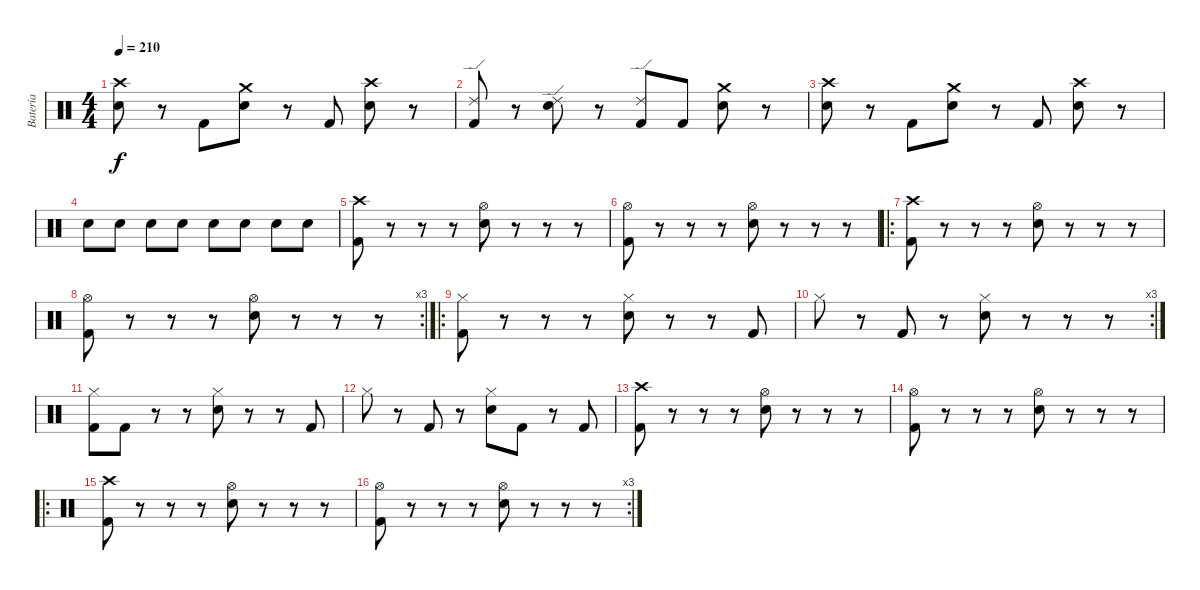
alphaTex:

\track ("Bateria" "Bateria") {instrument percussion}
\staff {score}
\articulation defaults
\ts (4 4)
\tempo 210
\clef neutral
\ks c
("Crash high (hit)" "Snare (hit) 2").8{dy f} r.8 "Kick (hit) 2".8 ("Crash medium (hit)" "Snare (hit) 2").8 r.8 "Kick (hit) 2".8 ("Crash high (hit)" "Snare (hit) 2").8 r.8 |
("Ride (edge) 2" "Kick (hit) 2").8 r.8 ("Ride (edge) 2" "Snare (hit) 2").8 r.8 ("Ride (edge) 2" "Kick (hit) 2").8 "Kick (hit) 2".8 ("Crash medium (hit)" "Snare (hit) 2").8 r.8 |
("Crash high (hit)" "Snare (hit) 2").8 r.8 "Kick (hit) 2".8 ("Crash medium (hit)" "Snare (hit) 2").8 r.8 "Kick (hit) 2".8 ("Crash high (hit)" "Snare (hit) 2").8 r.8 |
"Snare (hit) 2".8 "Snare (hit) 2".8 "Snare (hit) 2".8 "Snare (hit) 2".8 "Snare (hit) 2".8 "Snare (hit) 2".8 "Snare (hit) 2".8 "Snare (hit) 2".8 |
("Crash high (hit)" "Kick (hit) 2").8 r.8 r.8 r.8 ("Hi-Hat (open)" "Snare (hit) 2").8 r.8 r.8 r.8 |
("Hi-Hat (open)" "Kick (hit) 2").8 r.8 r.8 r.8 ("Hi-Hat (open)" "Snare (hit) 2").8 r.8 r.8 r.8 |
\ro
("Crash high (hit)" "Kick (hit) 2").8 r.8 r.8 r.8 ("Hi-Hat (open)" "Snare (hit) 2").8 r.8 r.8 r.8 |
\rc 3
("Hi-Hat (open)" "Kick (hit) 2").8 r.8 r.8 r.8 ("Hi-Hat (open)" "Snare (hit) 2").8 r.8 r.8 r.8 |
\ro
("Hi-Hat (closed)" "Kick (hit) 2").8 r.8 r.8 r.8 ("Hi-Hat (closed)" "Snare (hit) 2").8 r.8 r.8 "Kick (hit) 2".8 |
\rc 3 "Hi-Hat (closed)".8
r.8 "Kick (hit) 2".8 r.8 ("Hi-Hat (closed)" "Snare (hit) 2").8 r.8 r.8 r.8 |
("Hi-Hat (closed)" "Kick (hit) 2").8 "Kick (hit) 2".8 r.8 r.8 ("Hi-Hat (closed)" "Snare (hit) 2").8 r.8 r.8 "Kick (hit) 2".8 |
"Hi-Hat (closed)".8 r.8 "Kick (hit) 2".8 r.8 ("Hi-Hat (closed)" "Snare (hit) 2").8 "Kick (hit) 2".8 r.8 "Kick (hit) 2".8 |
("Crash high (hit)" "Kick (hit) 2").8 r.8 r.8 r.8 ("Hi-Hat (open)" "Snare (hit) 2").8 r.8 r.8 r.8 |
("Hi-Hat (open)" "Kick (hit) 2").8 r.8 r.8 r.8 ("Hi-Hat (open)" "Snare (hit) 2").8 r.8 r.8 r.8 |
\ro
("Crash high (hit)" "Kick (hit) 2").8 r.8 r.8 r.8 ("Hi-Hat (open)" "Snare (hit) 2").8 r.8 r.8 r.8 |
\rc 3
("Hi-Hat (open)" "Kick (hit) 2").8 r.8 r.8 r.8 ("Hi-Hat (open)" "Snare (hit) 2").8 r.8 r.8 r.8
